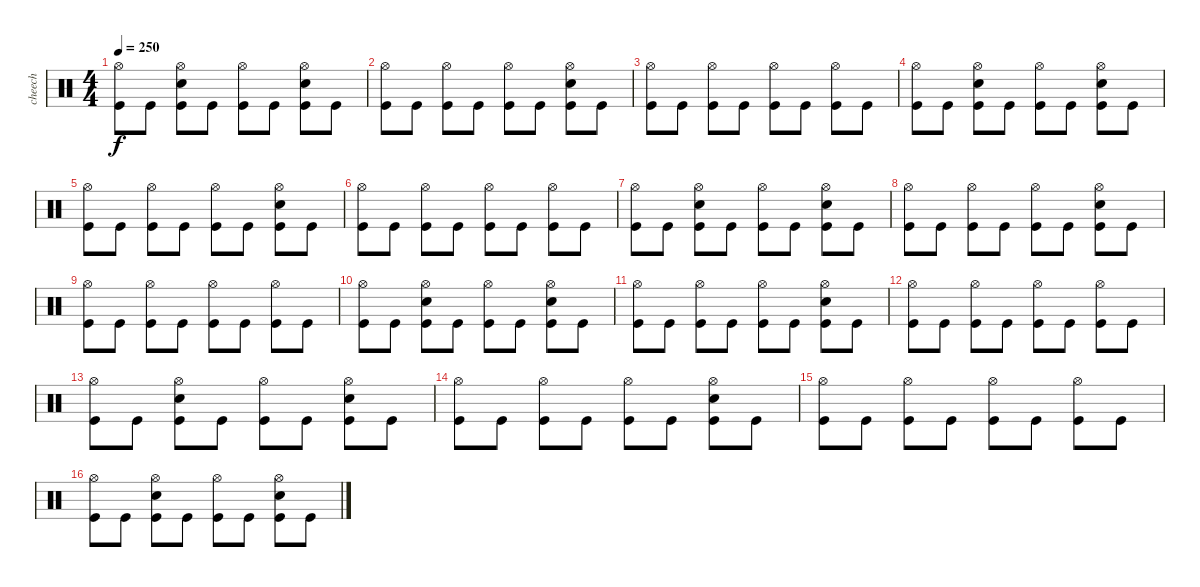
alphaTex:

\track ("cheech" "cheech") {instrument percussion}
\staff {score}
\articulation defaults
\ts (4 4)
\tempo 250
\clef neutral
\ks c
("Hi-Hat (open)" "Kick (hit)").8{dy f} "Kick (hit)".8 ("Hi-Hat (open)" "Electric Snare (hit)" "Kick (hit)").8 "Kick (hit)".8 ("Hi-Hat (open)" "Kick (hit)").8 "Kick (hit)".8 ("Hi-Hat (open)" "Electric Snare (hit)" "Kick (hit)").8 "Kick (hit)".8 |
("Hi-Hat (open)" "Kick (hit)").8 "Kick (hit)".8 ("Hi-Hat (open)" "Kick (hit)").8 "Kick (hit)".8 ("Hi-Hat (open)" "Kick (hit)").8 "Kick (hit)".8 ("Hi-Hat (open)" "Electric Snare (hit)" "Kick (hit)").8 "Kick (hit)".8 |
("Hi-Hat (open)" "Kick (hit)").8 "Kick (hit)".8 ("Hi-Hat (open)" "Kick (hit)").8 "Kick (hit)".8 ("Hi-Hat (open)" "Kick (hit)").8 "Kick (hit)".8 ("Hi-Hat (open)" "Kick (hit)").8 "Kick (hit)".8 |
("Hi-Hat (open)" "Kick (hit)").8 "Kick (hit)".8 ("Hi-Hat (open)" "Electric Snare (hit)" "Kick (hit)").8 "Kick (hit)".8 ("Hi-Hat (open)" "Kick (hit)").8 "Kick (hit)".8 ("Hi-Hat (open)" "Electric Snare (hit)" "Kick (hit)").8 "Kick (hit)".8 |
("Hi-Hat (open)" "Kick (hit)").8 "Kick (hit)".8 ("Hi-Hat (open)" "Kick (hit)").8 "Kick (hit)".8 ("Hi-Hat (open)" "Kick (hit)").8 "Kick (hit)".8 ("Hi-Hat (open)" "Electric Snare (hit)" "Kick (hit)").8 "Kick (hit)".8 |
("Hi-Hat (open)" "Kick (hit)").8 "Kick (hit)".8 ("Hi-Hat (open)" "Kick (hit)").8 "Kick (hit)".8 ("Hi-Hat (open)" "Kick (hit)").8 "Kick (hit)".8 ("Hi-Hat (open)" "Kick (hit)").8 "Kick (hit)".8 |
("Hi-Hat (open)" "Kick (hit)").8 "Kick (hit)".8 ("Hi-Hat (open)" "Electric Snare (hit)" "Kick (hit)").8 "Kick (hit)".8 ("Hi-Hat (open)" "Kick (hit)").8 "Kick (hit)".8 ("Hi-Hat (open)" "Electric Snare (hit)" "Kick (hit)").8 "Kick (hit)".8 |
("Hi-Hat (open)" "Kick (hit)").8 "Kick (hit)".8 ("Hi-Hat (open)" "Kick (hit)").8 "Kick (hit)".8 ("Hi-Hat (open)" "Kick (hit)").8 "Kick (hit)".8 ("Hi-Hat (open)" "Electric Snare (hit)" "Kick (hit)").8 "Kick (hit)".8 |
("Hi-Hat (open)" "Kick (hit)").8 "Kick (hit)".8 ("Hi-Hat (open)" "Kick (hit)").8 "Kick (hit)".8 ("Hi-Hat (open)" "Kick (hit)").8 "Kick (hit)".8 ("Hi-Hat (open)" "Kick (hit)").8 "Kick (hit)".8 |
("Hi-Hat (open)" "Kick (hit)").8 "Kick (hit)".8 ("Hi-Hat (open)" "Electric Snare (hit)" "Kick (hit)").8 "Kick (hit)".8 ("Hi-Hat (open)" "Kick (hit)").8 "Kick (hit)".8 ("Hi-Hat (open)" "Electric Snare (hit)" "Kick (hit)").8 "Kick (hit)".8 |
("Hi-Hat (open)" "Kick (hit)").8 "Kick (hit)".8 ("Hi-Hat (open)" "Kick (hit)").8 "Kick (hit)".8 ("Hi-Hat (open)" "Kick (hit)").8 "Kick (hit)".8 ("Hi-Hat (open)" "Electric Snare (hit)" "Kick (hit)").8 "Kick (hit)".8 |
("Hi-Hat (open)" "Kick (hit)").8 "Kick (hit)".8 ("Hi-Hat (open)" "Kick (hit)").8 "Kick (hit)".8 ("Hi-Hat (open)" "Kick (hit)").8 "Kick (hit)".8 ("Hi-Hat (open)" "Kick (hit)").8 "Kick (hit)".8 |
("Hi-Hat (open)" "Kick (hit)").8 "Kick (hit)".8 ("Hi-Hat (open)" "Electric Snare (hit)" "Kick (hit)").8 "Kick (hit)".8 ("Hi-Hat (open)" "Kick (hit)").8 "Kick (hit)".8 ("Hi-Hat (open)" "Electric Snare (hit)" "Kick (hit)").8 "Kick (hit)".8 |
("Hi-Hat (open)" "Kick (hit)").8 "Kick (hit)".8 ("Hi-Hat (open)" "Kick (hit)").8 "Kick (hit)".8 ("Hi-Hat (open)" "Kick (hit)").8 "Kick (hit)".8 ("Hi-Hat (open)" "Electric Snare (hit)" "Kick (hit)").8 "Kick (hit)".8 |
("Hi-Hat (open)" "Kick (hit)").8 "Kick (hit)".8 ("Hi-Hat (open)" "Kick (hit)").8 "Kick (hit)".8 ("Hi-Hat (open)" "Kick (hit)").8 "Kick (hit)".8 ("Hi-Hat (open)" "Kick (hit)").8 "Kick (hit)".8 |
("Hi-Hat (open)" "Kick (hit)").8 "Kick (hit)".8 ("Hi-Hat (open)" "Electric Snare (hit)" "Kick (hit)").8 "Kick (hit)".8 ("Hi-Hat (open)" "Kick (hit)").8 "Kick (hit)".8 ("Hi-Hat (open)" "Electric Snare (hit)" "Kick (hit)").8 "Kick (hit)".8
